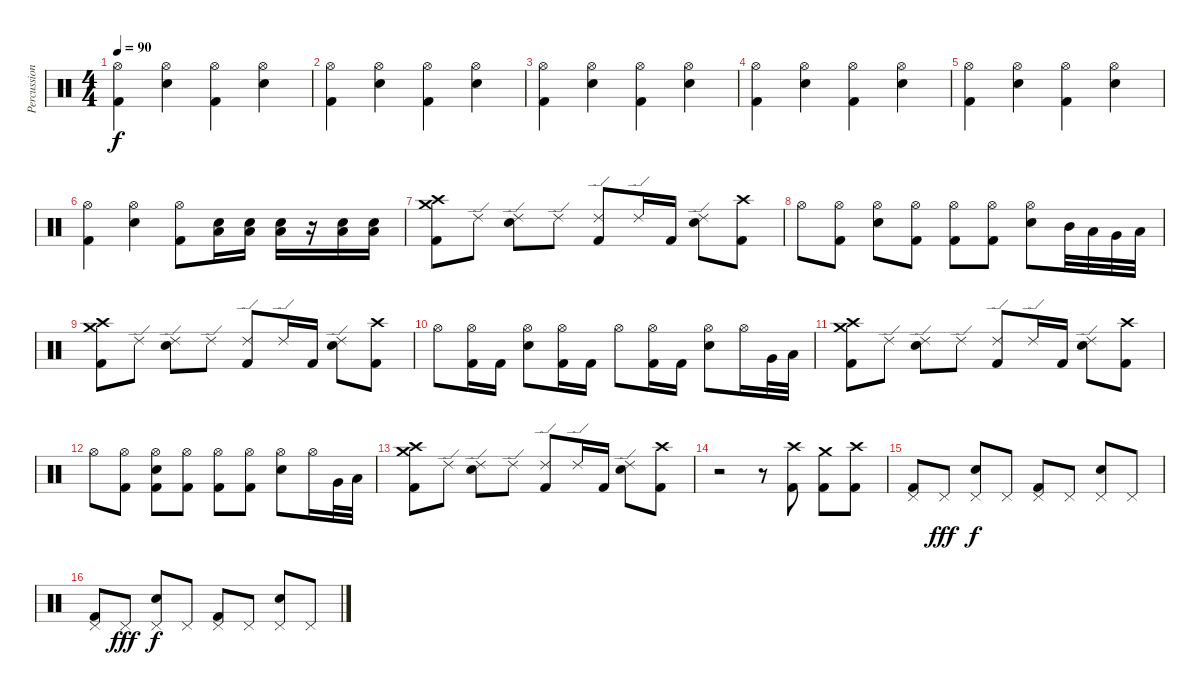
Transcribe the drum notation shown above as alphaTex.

\track ("Percussions" "Percussion") {instrument percussion}
\staff {score}
\articulation defaults
\ts (4 4)
\tempo 90
\clef neutral
\ks c
("Hi-Hat (open)" "Kick (hit) 2").4{dy f} ("Hi-Hat (open)" "Snare (hit) 2").4 ("Hi-Hat (open)" "Kick (hit) 2").4 ("Hi-Hat (open)" "Snare (hit) 2").4 |
("Hi-Hat (open)" "Kick (hit) 2").4 ("Hi-Hat (open)" "Snare (hit) 2").4 ("Hi-Hat (open)" "Kick (hit) 2").4 ("Hi-Hat (open)" "Snare (hit) 2").4 |
("Hi-Hat (open)" "Kick (hit) 2").4 ("Hi-Hat (open)" "Snare (hit) 2").4 ("Hi-Hat (open)" "Kick (hit) 2").4 ("Hi-Hat (open)" "Snare (hit) 2").4 |
("Hi-Hat (open)" "Kick (hit) 2").4 ("Hi-Hat (open)" "Snare (hit) 2").4 ("Hi-Hat (open)" "Kick (hit) 2").4 ("Hi-Hat (open)" "Snare (hit) 2").4 |
("Hi-Hat (open)" "Kick (hit) 2").4 ("Hi-Hat (open)" "Snare (hit) 2").4 ("Hi-Hat (open)" "Kick (hit) 2").4 ("Hi-Hat (open)" "Snare (hit) 2").4 |
("Hi-Hat (open)" "Kick (hit) 2").4 ("Hi-Hat (open)" "Snare (hit) 2").4 ("Hi-Hat (open)" "Kick (hit) 2").8 ("Low Floor Tom (hit)" "Snare (hit) 2").16 ("Low Floor Tom (hit)" "Snare (hit) 2").16 ("Low Floor Tom (hit)" "Snare (hit) 2").16 r.16 ("Low Floor Tom (hit)" "Snare (hit) 2").16 ("Low Floor Tom (hit)" "Snare (hit) 2").16 |
("Crash high (hit)" "Crash medium (hit)" "Kick (hit) 2").8 "Ride (edge) 2".8 ("Ride (edge) 2" "Snare (hit) 2").8 "Ride (edge) 2".8 ("Ride (edge) 2" "Kick (hit) 2").8 "Ride (edge) 2".16 "Kick (hit) 2".16 ("Ride (edge) 2" "Snare (hit) 2").8 ("Crash high (hit)" "Kick (hit) 2").8 |
"Hi-Hat (open)".8 ("Hi-Hat (open)" "Kick (hit) 2").8 ("Hi-Hat (open)" "Snare (hit) 2").8 ("Hi-Hat (open)" "Kick (hit) 2").8 ("Hi-Hat (open)" "Kick (hit) 2").8 ("Hi-Hat (open)" "Kick (hit) 2").8 ("Hi-Hat (open)" "Snare (hit) 2").8 "Mid Tom (hit)".32 "Low Tom (hit)".32 "Very Low Tom (hit)".32 "Low Floor Tom (hit)".32 |
("Crash high (hit)" "Crash medium (hit)" "Kick (hit) 2").8 "Ride (edge) 2".8 ("Ride (edge) 2" "Snare (hit) 2").8 "Ride (edge) 2".8 ("Ride (edge) 2" "Kick (hit) 2").8 "Ride (edge) 2".16 "Kick (hit) 2".16 ("Ride (edge) 2" "Snare (hit) 2").8 ("Crash high (hit)" "Kick (hit) 2").8 |
"Hi-Hat (open)".8 ("Hi-Hat (open)" "Kick (hit) 2").16 "Kick (hit) 2".16 ("Hi-Hat (open)" "Snare (hit) 2").8 ("Hi-Hat (open)" "Kick (hit) 2").16 "Kick (hit) 2".16 "Hi-Hat (open)".8 ("Hi-Hat (open)" "Kick (hit) 2").16 "Kick (hit) 2".16 ("Hi-Hat (open)" "Snare (hit) 2").8 "Hi-Hat (open)".16 "Very Low Tom (hit)".32 "Low Floor Tom (hit)".32 |
("Crash high (hit)" "Crash medium (hit)" "Kick (hit) 2").8 "Ride (edge) 2".8 ("Ride (edge) 2" "Snare (hit) 2").8 "Ride (edge) 2".8 ("Ride (edge) 2" "Kick (hit) 2").8 "Ride (edge) 2".16 "Kick (hit) 2".16 ("Ride (edge) 2" "Snare (hit) 2").8 ("Crash high (hit)" "Kick (hit) 2").8 |
"Hi-Hat (open)".8 ("Hi-Hat (open)" "Kick (hit) 2").8 ("Hi-Hat (open)" "Snare (hit) 2" "Kick (hit) 2").8 ("Hi-Hat (open)" "Kick (hit) 2").8 ("Hi-Hat (open)" "Kick (hit) 2").8 ("Hi-Hat (open)" "Kick (hit) 2").8 ("Hi-Hat (open)" "Snare (hit) 2").8 "Hi-Hat (open)".16 "Very Low Tom (hit)".32 "Low Floor Tom (hit)".32 |
("Crash high (hit)" "Crash medium (hit)" "Kick (hit) 2").8 "Ride (edge) 2".8 ("Ride (edge) 2" "Snare (hit) 2").8 "Ride (edge) 2".8 ("Ride (edge) 2" "Kick (hit) 2").8 "Ride (edge) 2".16 "Kick (hit) 2".16 ("Ride (edge) 2" "Snare (hit) 2").8 ("Crash high (hit)" "Kick (hit) 2").8 |
r.2 r.8 ("Crash high (hit)" "Kick (hit) 2").8 ("Crash medium (hit)" "Kick (hit) 2").8 ("Crash high (hit)" "Kick (hit) 2").8 |
("Pedal Hi-Hat (hit)" "Kick (hit) 2").8 "Pedal Hi-Hat (hit)".8{dy fff} ("Pedal Hi-Hat (hit)" "Snare (hit) 2").8{dy f} "Pedal Hi-Hat (hit)".8 ("Pedal Hi-Hat (hit)" "Kick (hit) 2").8 "Pedal Hi-Hat (hit)".8 ("Pedal Hi-Hat (hit)" "Snare (hit) 2").8 "Pedal Hi-Hat (hit)".8 |
("Pedal Hi-Hat (hit)" "Kick (hit) 2").8 "Pedal Hi-Hat (hit)".8{dy fff} ("Pedal Hi-Hat (hit)" "Snare (hit) 2").8{dy f} "Pedal Hi-Hat (hit)".8 ("Pedal Hi-Hat (hit)" "Kick (hit) 2").8 "Pedal Hi-Hat (hit)".8 ("Pedal Hi-Hat (hit)" "Snare (hit) 2").8 "Pedal Hi-Hat (hit)".8
